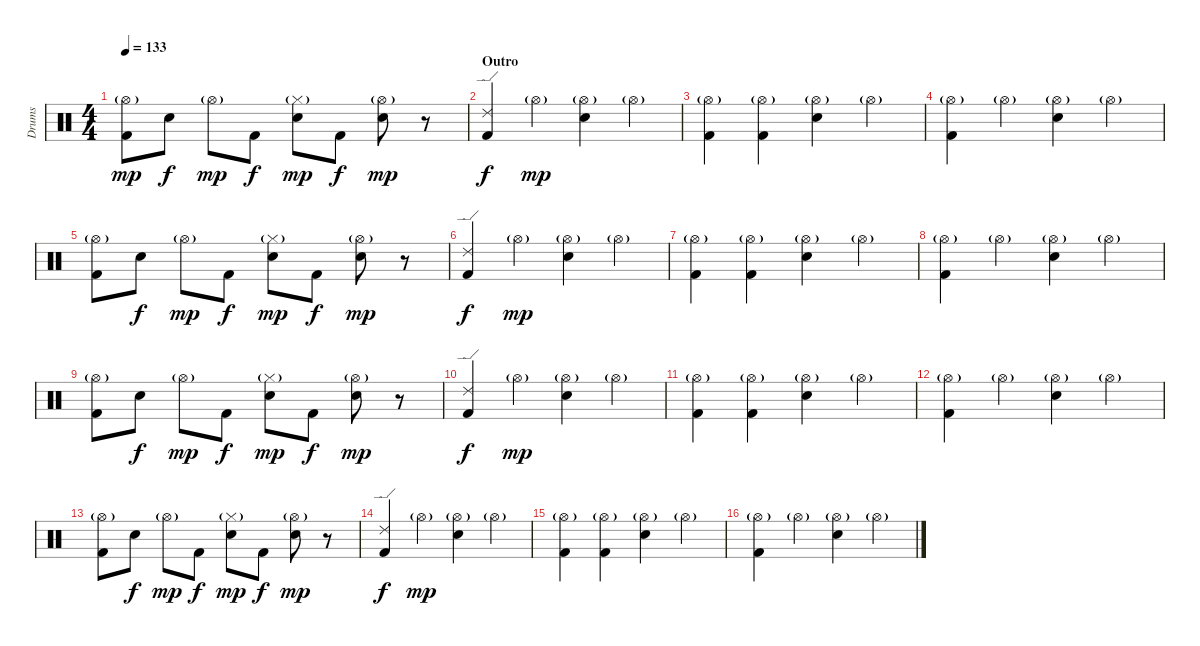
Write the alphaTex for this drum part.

\track ("Drums" "Drums") {instrument percussion}
\staff {score}
\articulation defaults
\ts (4 4)
\tempo 133
\clef neutral
\ks c
("Hi-Hat (open)"{g} "Kick (hit) 2").8{dy mp} "Electric Snare (hit)".8{dy f} "Hi-Hat (open)"{g}.8{dy mp} "Kick (hit) 2".8{dy f} ("Hi-Hat (closed)"{g} "Electric Snare (hit)").8{dy mp} "Kick (hit) 2".8{dy f} ("Hi-Hat (open)"{g} "Electric Snare (hit)").8{dy mp} r.8 |
\section ("" "Outro")
("Ride (edge) 2" "Kick (hit) 2").4{dy f} "Hi-Hat (open)"{g}.4{dy mp} ("Hi-Hat (open)"{g} "Electric Snare (hit)").4 "Hi-Hat (open)"{g}.4 |
("Hi-Hat (open)"{g} "Kick (hit) 2").4 ("Hi-Hat (open)"{g} "Kick (hit) 2").4 ("Hi-Hat (open)"{g} "Electric Snare (hit)").4 "Hi-Hat (open)"{g}.4 |
("Hi-Hat (open)"{g} "Kick (hit) 2").4 "Hi-Hat (open)"{g}.4 ("Hi-Hat (open)"{g} "Electric Snare (hit)").4 "Hi-Hat (open)"{g}.4 |
("Hi-Hat (open)"{g} "Kick (hit) 2").8 "Electric Snare (hit)".8{dy f} "Hi-Hat (open)"{g}.8{dy mp} "Kick (hit) 2".8{dy f} ("Hi-Hat (closed)"{g} "Electric Snare (hit)").8{dy mp} "Kick (hit) 2".8{dy f} ("Hi-Hat (open)"{g} "Electric Snare (hit)").8{dy mp} r.8 |
("Ride (edge) 2" "Kick (hit) 2").4{dy f} "Hi-Hat (open)"{g}.4{dy mp} ("Hi-Hat (open)"{g} "Electric Snare (hit)").4 "Hi-Hat (open)"{g}.4 |
("Hi-Hat (open)"{g} "Kick (hit) 2").4 ("Hi-Hat (open)"{g} "Kick (hit) 2").4 ("Hi-Hat (open)"{g} "Electric Snare (hit)").4 "Hi-Hat (open)"{g}.4 |
("Hi-Hat (open)"{g} "Kick (hit) 2").4 "Hi-Hat (open)"{g}.4 ("Hi-Hat (open)"{g} "Electric Snare (hit)").4 "Hi-Hat (open)"{g}.4 |
("Hi-Hat (open)"{g} "Kick (hit) 2").8 "Electric Snare (hit)".8{dy f} "Hi-Hat (open)"{g}.8{dy mp} "Kick (hit) 2".8{dy f} ("Hi-Hat (closed)"{g} "Electric Snare (hit)").8{dy mp} "Kick (hit) 2".8{dy f} ("Hi-Hat (open)"{g} "Electric Snare (hit)").8{dy mp} r.8 |
("Ride (edge) 2" "Kick (hit) 2").4{dy f} "Hi-Hat (open)"{g}.4{dy mp} ("Hi-Hat (open)"{g} "Electric Snare (hit)").4 "Hi-Hat (open)"{g}.4 |
("Hi-Hat (open)"{g} "Kick (hit) 2").4 ("Hi-Hat (open)"{g} "Kick (hit) 2").4 ("Hi-Hat (open)"{g} "Electric Snare (hit)").4 "Hi-Hat (open)"{g}.4 |
("Hi-Hat (open)"{g} "Kick (hit) 2").4 "Hi-Hat (open)"{g}.4 ("Hi-Hat (open)"{g} "Electric Snare (hit)").4 "Hi-Hat (open)"{g}.4 |
("Hi-Hat (open)"{g} "Kick (hit) 2").8 "Electric Snare (hit)".8{dy f} "Hi-Hat (open)"{g}.8{dy mp} "Kick (hit) 2".8{dy f} ("Hi-Hat (closed)"{g} "Electric Snare (hit)").8{dy mp} "Kick (hit) 2".8{dy f} ("Hi-Hat (open)"{g} "Electric Snare (hit)").8{dy mp} r.8 |
("Ride (edge) 2" "Kick (hit) 2").4{dy f} "Hi-Hat (open)"{g}.4{dy mp} ("Hi-Hat (open)"{g} "Electric Snare (hit)").4 "Hi-Hat (open)"{g}.4 |
("Hi-Hat (open)"{g} "Kick (hit) 2").4 ("Hi-Hat (open)"{g} "Kick (hit) 2").4 ("Hi-Hat (open)"{g} "Electric Snare (hit)").4 "Hi-Hat (open)"{g}.4 |
("Hi-Hat (open)"{g} "Kick (hit) 2").4 "Hi-Hat (open)"{g}.4 ("Hi-Hat (open)"{g} "Electric Snare (hit)").4 "Hi-Hat (open)"{g}.4
